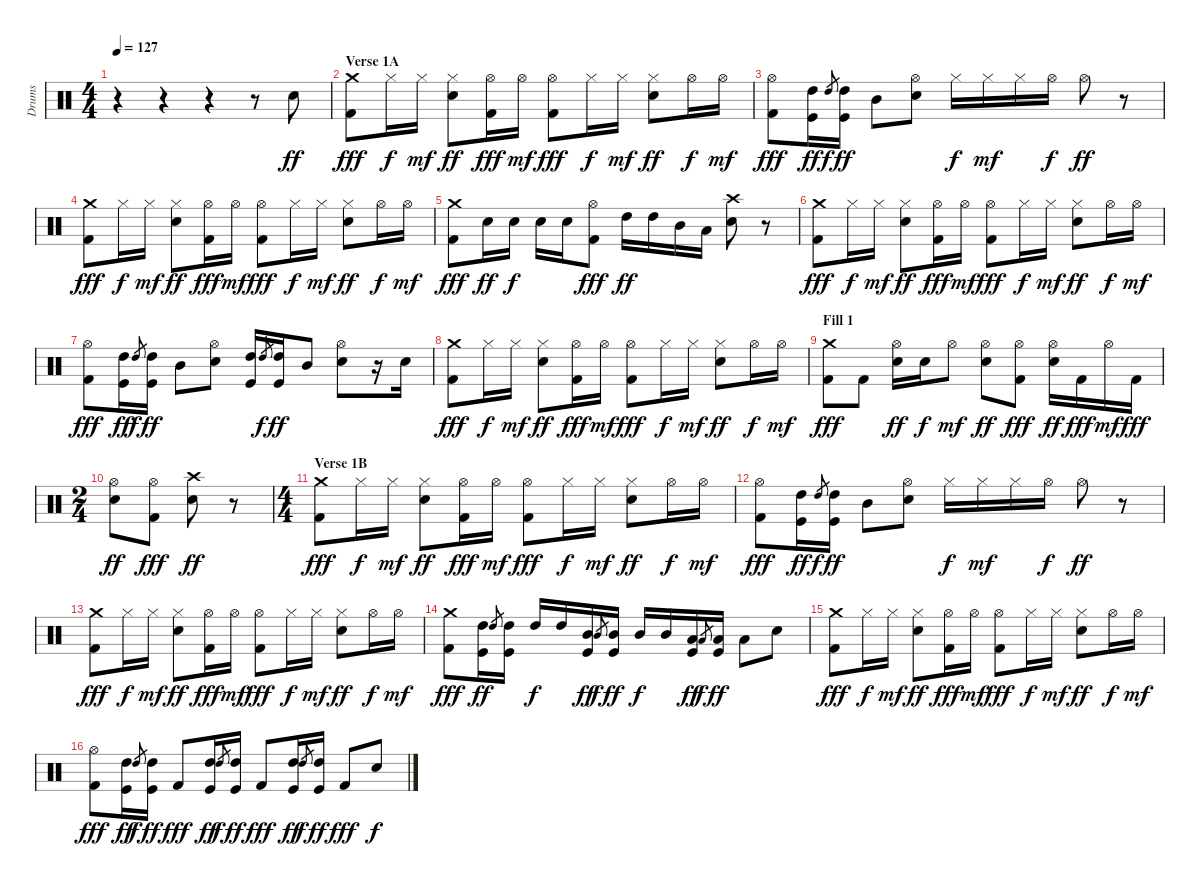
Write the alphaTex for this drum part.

\track ("Drums" "Drums") {instrument percussion}
\staff {score}
\articulation defaults
\ts (4 4)
\tempo 127
\clef neutral
\ks c
r.4{dy ff} r.4 r.4 r.8 "Snare (hit) 2".8 |
\section ("" "Verse 1A")
("Crash medium (hit)" "Kick (hit) 2").8{dy fff} "Hi-Hat (closed)".16{dy f} "Hi-Hat (closed)".16{dy mf} ("Hi-Hat (closed)" "Snare (hit) 2").8{dy ff} ("Hi-Hat (open)" "Kick (hit) 2").16{dy fff} "Hi-Hat (open)".16{dy mf} ("Hi-Hat (open)" "Kick (hit) 2").8{dy fff} "Hi-Hat (closed)".16{dy f} "Hi-Hat (closed)".16{dy mf} ("Hi-Hat (closed)" "Snare (hit) 2").8{dy ff} "Hi-Hat (open)".16{dy f} "Hi-Hat (open)".16{dy mf} |
("Hi-Hat (open)" "Kick (hit) 2").8{dy fff} ("High Tom (hit)" "Kick (hit)").16{dy ff} "High Tom (hit)".8{gr dy f} ("High Tom (hit)" "Kick (hit)").16{dy ff} "Mid Tom (hit)".8 ("Hi-Hat (open)" "Snare (hit) 2").8 "Hi-Hat (closed)".16{dy f} "Hi-Hat (closed)".16{dy mf} "Hi-Hat (closed)".16 "Hi-Hat (open)".16{dy f} "Hi-Hat (open)".8{dy ff} r.8 |
("Crash medium (hit)" "Kick (hit) 2").8{dy fff} "Hi-Hat (closed)".16{dy f} "Hi-Hat (closed)".16{dy mf} ("Hi-Hat (closed)" "Snare (hit) 2").8{dy ff} ("Hi-Hat (open)" "Kick (hit) 2").16{dy fff} "Hi-Hat (open)".16{dy mf} ("Hi-Hat (open)" "Kick (hit) 2").8{dy fff} "Hi-Hat (closed)".16{dy f} "Hi-Hat (closed)".16{dy mf} ("Hi-Hat (closed)" "Snare (hit) 2").8{dy ff} "Hi-Hat (open)".16{dy f} "Hi-Hat (open)".16{dy mf} |
("Crash medium (hit)" "Kick (hit) 2").8{dy fff} "Snare (hit) 2".16{dy ff} "Snare (hit) 2".16{dy f} "Snare (hit) 2".16 "Snare (hit) 2".16 ("Hi-Hat (open)" "Kick (hit) 2").8{dy fff} "High Tom (hit)".16{dy ff} "High Tom (hit)".16 "Mid Tom (hit)".16 "Low Tom (hit)".16 ("Crash high (hit)" "Snare (hit) 2").8 r.8 |
("Crash medium (hit)" "Kick (hit) 2").8{dy fff} "Hi-Hat (closed)".16{dy f} "Hi-Hat (closed)".16{dy mf} ("Hi-Hat (closed)" "Snare (hit) 2").8{dy ff} ("Hi-Hat (open)" "Kick (hit) 2").16{dy fff} "Hi-Hat (open)".16{dy mf} ("Hi-Hat (open)" "Kick (hit) 2").8{dy fff} "Hi-Hat (closed)".16{dy f} "Hi-Hat (closed)".16{dy mf} ("Hi-Hat (closed)" "Snare (hit) 2").8{dy ff} "Hi-Hat (open)".16{dy f} "Hi-Hat (open)".16{dy mf} |
("Hi-Hat (open)" "Kick (hit) 2").8{dy fff} ("High Tom (hit)" "Kick (hit)").16{dy ff} "High Tom (hit)".8{gr dy f} ("High Tom (hit)" "Kick (hit)").16{dy ff} "Mid Tom (hit)".8 ("Hi-Hat (open)" "Snare (hit) 2").8 ("High Tom (hit)" "Kick (hit)").16 "High Tom (hit)".8{gr dy f} ("High Tom (hit)" "Kick (hit)").16{dy ff} "Mid Tom (hit)".8 ("Hi-Hat (open)" "Snare (hit) 2").8 r.16 "Snare (hit) 2".16 |
("Crash medium (hit)" "Kick (hit) 2").8{dy fff} "Hi-Hat (closed)".16{dy f} "Hi-Hat (closed)".16{dy mf} ("Hi-Hat (closed)" "Snare (hit) 2").8{dy ff} ("Hi-Hat (open)" "Kick (hit) 2").16{dy fff} "Hi-Hat (open)".16{dy mf} ("Hi-Hat (open)" "Kick (hit) 2").8{dy fff} "Hi-Hat (closed)".16{dy f} "Hi-Hat (closed)".16{dy mf} ("Hi-Hat (closed)" "Snare (hit) 2").8{dy ff} "Hi-Hat (open)".16{dy f} "Hi-Hat (open)".16{dy mf} |
\section ("" "Fill 1")
("Crash medium (hit)" "Kick (hit) 2").8{dy fff} "Kick (hit) 2".8 ("Hi-Hat (open)" "Snare (hit) 2").16{dy ff} "Snare (hit) 2".16{dy f} "Hi-Hat (open)".8{dy mf} ("Hi-Hat (open)" "Snare (hit) 2").8{dy ff} ("Hi-Hat (open)" "Kick (hit) 2").8{dy fff} ("Hi-Hat (open)" "Snare (hit) 2").16{dy ff} "Kick (hit) 2".16{dy fff} "Hi-Hat (open)".16{dy mf} "Kick (hit) 2".16{dy fff} |
\ts (2 4)
("Hi-Hat (open)" "Snare (hit) 2").8{dy ff} ("Hi-Hat (open)" "Kick (hit) 2").8{dy fff} ("Crash high (hit)" "Snare (hit) 2").8{dy ff} r.8 |
\ts (4 4)
\section ("" "Verse 1B")
("Crash medium (hit)" "Kick (hit) 2").8{dy fff} "Hi-Hat (closed)".16{dy f} "Hi-Hat (closed)".16{dy mf} ("Hi-Hat (closed)" "Snare (hit) 2").8{dy ff} ("Hi-Hat (open)" "Kick (hit) 2").16{dy fff} "Hi-Hat (open)".16{dy mf} ("Hi-Hat (open)" "Kick (hit) 2").8{dy fff} "Hi-Hat (closed)".16{dy f} "Hi-Hat (closed)".16{dy mf} ("Hi-Hat (closed)" "Snare (hit) 2").8{dy ff} "Hi-Hat (open)".16{dy f} "Hi-Hat (open)".16{dy mf} |
("Hi-Hat (open)" "Kick (hit) 2").8{dy fff} ("High Tom (hit)" "Kick (hit)").16{dy ff} "High Tom (hit)".8{gr dy f} ("High Tom (hit)" "Kick (hit)").16{dy ff} "Mid Tom (hit)".8 ("Hi-Hat (open)" "Snare (hit) 2").8 "Hi-Hat (closed)".16{dy f} "Hi-Hat (closed)".16{dy mf} "Hi-Hat (closed)".16 "Hi-Hat (open)".16{dy f} "Hi-Hat (open)".8{dy ff} r.8 |
("Crash medium (hit)" "Kick (hit) 2").8{dy fff} "Hi-Hat (closed)".16{dy f} "Hi-Hat (closed)".16{dy mf} ("Hi-Hat (closed)" "Snare (hit) 2").8{dy ff} ("Hi-Hat (open)" "Kick (hit) 2").16{dy fff} "Hi-Hat (open)".16{dy mf} ("Hi-Hat (open)" "Kick (hit) 2").8{dy fff} "Hi-Hat (closed)".16{dy f} "Hi-Hat (closed)".16{dy mf} ("Hi-Hat (closed)" "Snare (hit) 2").8{dy ff} "Hi-Hat (open)".16{dy f} "Hi-Hat (open)".16{dy mf} |
("Crash medium (hit)" "Kick (hit) 2").8{dy fff} ("High Tom (hit)" "Kick (hit)").16{dy ff} "High Tom (hit)".8{gr} ("High Tom (hit)" "Kick (hit)").16 "High Tom (hit)".16{dy f} "High Tom (hit)".16 ("Mid Tom (hit)" "Kick (hit)").16{dy ff} "Mid Tom (hit)".8{gr dy f} ("Mid Tom (hit)" "Kick (hit)").16{dy ff} "Mid Tom (hit)".16{dy f} "Mid Tom (hit)".16 ("Low Tom (hit)" "Kick (hit)").16{dy ff} "Low Tom (hit)".8{gr dy f} ("Low Tom (hit)" "Kick (hit)").16{dy ff} "Low Tom (hit)".8 "Snare (hit) 2".8 |
("Crash medium (hit)" "Kick (hit) 2").8{dy fff} "Hi-Hat (closed)".16{dy f} "Hi-Hat (closed)".16{dy mf} ("Hi-Hat (closed)" "Snare (hit) 2").8{dy ff} ("Hi-Hat (open)" "Kick (hit) 2").16{dy fff} "Hi-Hat (open)".16{dy mf} ("Hi-Hat (open)" "Kick (hit) 2").8{dy fff} "Hi-Hat (closed)".16{dy f} "Hi-Hat (closed)".16{dy mf} ("Hi-Hat (closed)" "Snare (hit) 2").8{dy ff} "Hi-Hat (open)".16{dy f} "Hi-Hat (open)".16{dy mf} |
("Hi-Hat (open)" "Kick (hit) 2").8{dy fff} ("High Tom (hit)" "Kick (hit)").16{dy ff} "High Tom (hit)".8{gr dy f} ("High Tom (hit)" "Kick (hit)").16{dy ff} "Kick (hit) 2".8{dy fff} ("High Tom (hit)" "Kick (hit)").16{dy ff} "High Tom (hit)".8{gr dy f} ("High Tom (hit)" "Kick (hit)").16{dy ff} "Kick (hit) 2".8{dy fff} ("High Tom (hit)" "Kick (hit)").16{dy ff} "High Tom (hit)".8{gr dy f} ("High Tom (hit)" "Kick (hit)").16{dy ff} "Kick (hit) 2".8{dy fff} "Snare (hit) 2".8{dy f}
